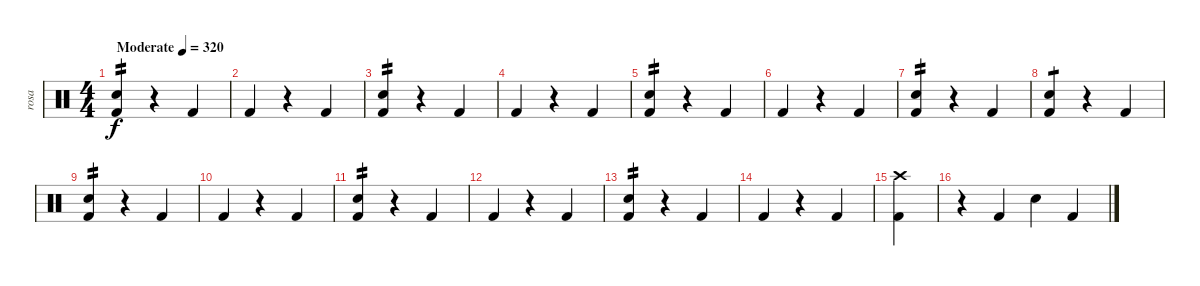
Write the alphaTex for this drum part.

\track ("rosa" "rosa") {instrument percussion}
\staff {score}
\articulation defaults
\ts (4 4)
\tempo (320 "Moderate")
\clef neutral
\ks c
("Electric Snare (hit)" "Kick (hit) 2").4{tp 2 dy f} r.4 "Kick (hit) 2".4 |
"Kick (hit) 2".4 r.4 "Kick (hit) 2".4 |
("Electric Snare (hit)" "Kick (hit) 2").4{tp 2} r.4 "Kick (hit) 2".4 |
"Kick (hit) 2".4 r.4 "Kick (hit) 2".4 |
("Electric Snare (hit)" "Kick (hit) 2").4{tp 2} r.4 "Kick (hit) 2".4 |
"Kick (hit) 2".4 r.4 "Kick (hit) 2".4 |
("Electric Snare (hit)" "Kick (hit) 2").4{tp 2} r.4 "Kick (hit) 2".4 |
("Electric Snare (hit)" "Kick (hit) 2").4{tp 1} r.4 "Kick (hit) 2".4 |
("Electric Snare (hit)" "Kick (hit) 2").4{tp 2} r.4 "Kick (hit) 2".4 |
"Kick (hit) 2".4 r.4 "Kick (hit) 2".4 |
("Electric Snare (hit)" "Kick (hit) 2").4{tp 2} r.4 "Kick (hit) 2".4 |
"Kick (hit) 2".4 r.4 "Kick (hit) 2".4 |
("Electric Snare (hit)" "Kick (hit) 2").4{tp 2} r.4 "Kick (hit) 2".4 |
"Kick (hit) 2".4 r.4 "Kick (hit) 2".4 |
("Crash high (hit)" "Kick (hit) 2").4 |
r.4 "Kick (hit) 2".4 "Electric Snare (hit)".4 "Kick (hit) 2".4
